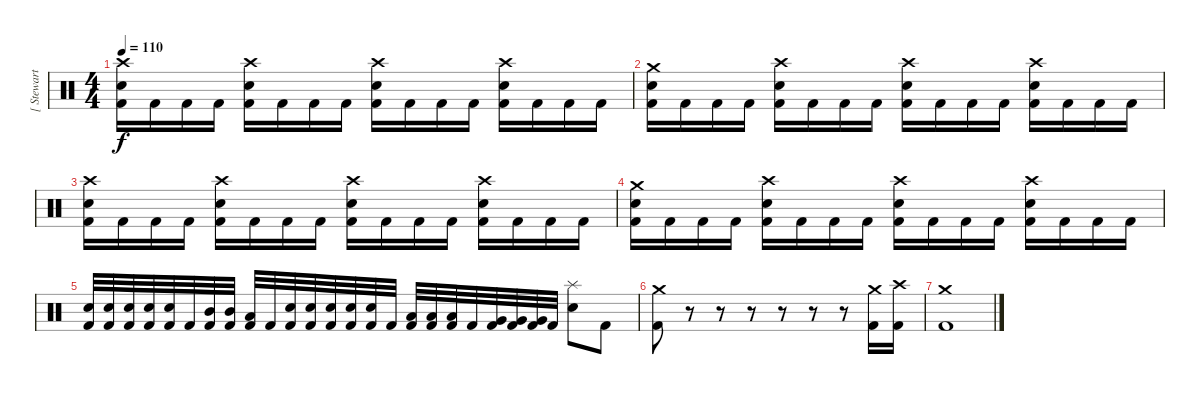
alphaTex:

\track ("[ Stewart ]" "[ Stewart ") {instrument percussion}
\staff {score}
\articulation defaults
\ts (4 4)
\tempo 110
\clef neutral
\ks c
("Kick (hit) 2" "Electric Snare (hit)" "Crash high (hit)").16{dy f} "Kick (hit) 2".16 "Kick (hit) 2".16 "Kick (hit) 2".16 ("Kick (hit) 2" "Electric Snare (hit)" "Crash high (hit)").16 "Kick (hit) 2".16 "Kick (hit) 2".16 "Kick (hit) 2".16 ("Kick (hit) 2" "Electric Snare (hit)" "Crash high (hit)").16 "Kick (hit) 2".16 "Kick (hit) 2".16 "Kick (hit) 2".16 ("Kick (hit) 2" "Electric Snare (hit)" "Crash high (hit)").16 "Kick (hit) 2".16 "Kick (hit) 2".16 "Kick (hit) 2".16 |
("Kick (hit) 2" "Electric Snare (hit)" "Crash medium (hit)").16 "Kick (hit) 2".16 "Kick (hit) 2".16 "Kick (hit) 2".16 ("Kick (hit) 2" "Electric Snare (hit)" "Crash high (hit)").16 "Kick (hit) 2".16 "Kick (hit) 2".16 "Kick (hit) 2".16 ("Kick (hit) 2" "Electric Snare (hit)" "Crash high (hit)").16 "Kick (hit) 2".16 "Kick (hit) 2".16 "Kick (hit) 2".16 ("Kick (hit) 2" "Electric Snare (hit)" "Crash high (hit)").16 "Kick (hit) 2".16 "Kick (hit) 2".16 "Kick (hit) 2".16 |
("Kick (hit) 2" "Electric Snare (hit)" "Crash high (hit)").16 "Kick (hit) 2".16 "Kick (hit) 2".16 "Kick (hit) 2".16 ("Kick (hit) 2" "Electric Snare (hit)" "Crash high (hit)").16 "Kick (hit) 2".16 "Kick (hit) 2".16 "Kick (hit) 2".16 ("Kick (hit) 2" "Electric Snare (hit)" "Crash high (hit)").16 "Kick (hit) 2".16 "Kick (hit) 2".16 "Kick (hit) 2".16 ("Kick (hit) 2" "Electric Snare (hit)" "Crash high (hit)").16 "Kick (hit) 2".16 "Kick (hit) 2".16 "Kick (hit) 2".16 |
("Kick (hit) 2" "Electric Snare (hit)" "Crash medium (hit)").16 "Kick (hit) 2".16 "Kick (hit) 2".16 "Kick (hit) 2".16 ("Kick (hit) 2" "Electric Snare (hit)" "Crash high (hit)").16 "Kick (hit) 2".16 "Kick (hit) 2".16 "Kick (hit) 2".16 ("Kick (hit) 2" "Electric Snare (hit)" "Crash high (hit)").16 "Kick (hit) 2".16 "Kick (hit) 2".16 "Kick (hit) 2".16 ("Kick (hit) 2" "Electric Snare (hit)" "Crash high (hit)").16 "Kick (hit) 2".16 "Kick (hit) 2".16 "Kick (hit) 2".16 |
("Electric Snare (hit)" "Kick (hit) 2").32 ("Electric Snare (hit)" "Kick (hit) 2").32 ("Electric Snare (hit)" "Kick (hit) 2").32 ("Electric Snare (hit)" "Kick (hit) 2").32 ("Electric Snare (hit)" "Kick (hit) 2").32 "Kick (hit) 2".32 ("Mid Tom (hit)" "Kick (hit) 2").32 ("Mid Tom (hit)" "Kick (hit) 2").32 ("Low Tom (hit)" "Kick (hit) 2").32 "Kick (hit) 2".32 ("Electric Snare (hit)" "Kick (hit) 2").32 ("Electric Snare (hit)" "Kick (hit) 2").32 ("Electric Snare (hit)" "Kick (hit) 2").32 ("Electric Snare (hit)" "Kick (hit) 2").32 ("Electric Snare (hit)" "Kick (hit) 2").32 "Kick (hit) 2".32 ("Low Tom (hit)" "Kick (hit) 2").32 ("Low Tom (hit)" "Kick (hit) 2").32 ("Low Tom (hit)" "Kick (hit) 2").32 "Kick (hit) 2".32 ("Very Low Tom (hit)" "Kick (hit) 2").32 ("Very Low Tom (hit)" "Kick (hit) 2").32 ("Very Low Tom (hit)" "Kick (hit) 2").32 "Kick (hit) 2".32 ("Electric Snare (hit)" "Splash (hit)").8 "Kick (hit) 2".8 |
("Kick (hit) 2" "Crash medium (hit)").8 r.8 r.8 r.8 r.8 r.8 r.8 ("Kick (hit) 2" "Crash medium (hit)").16 ("Kick (hit) 2" "Crash high (hit)").16 |
("Kick (hit) 2" "Crash medium (hit)").1
